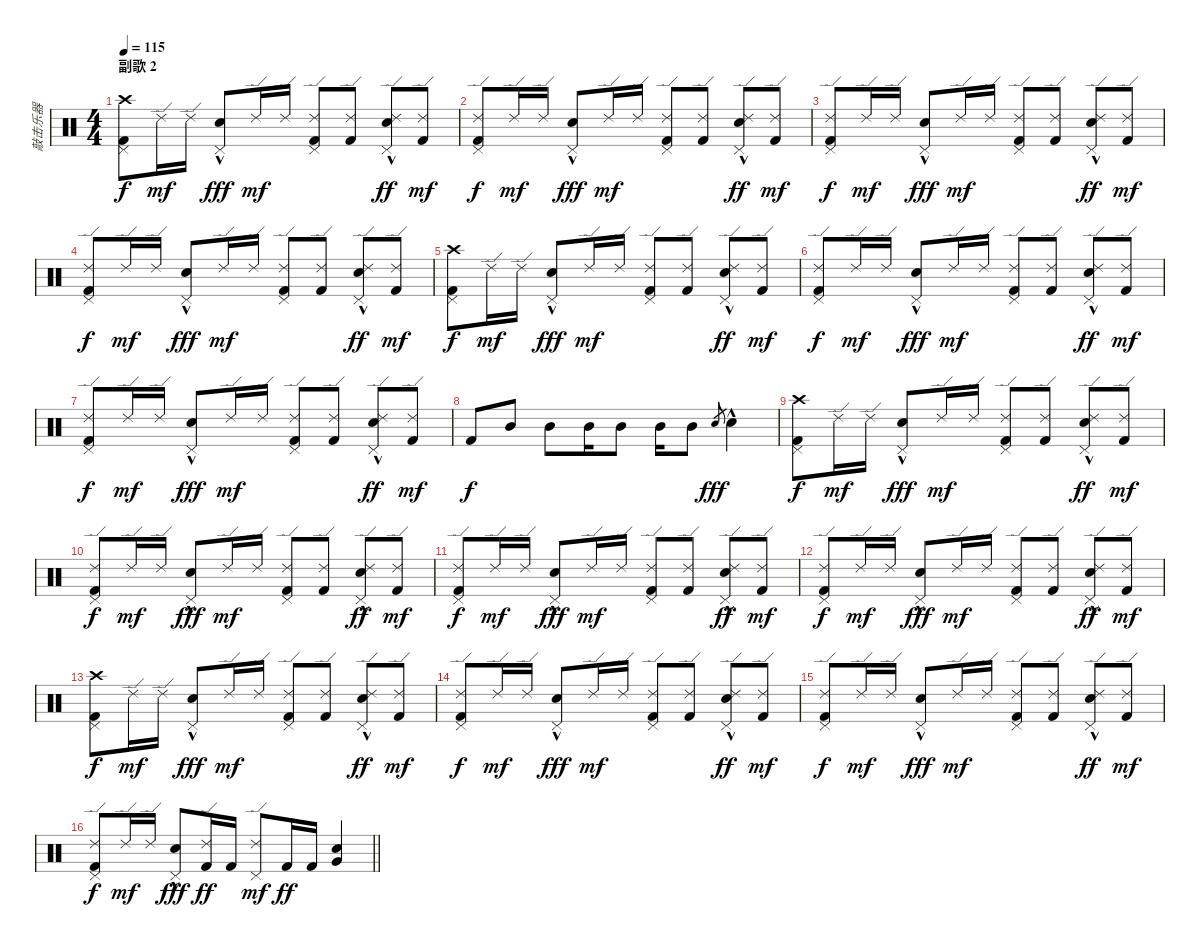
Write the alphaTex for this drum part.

\track ("敲击乐器" "敲击乐器") {instrument percussion}
\staff {score}
\articulation defaults
\ts (4 4)
\section ("" "副歌 2 ")
\tempo 115
\clef neutral
\ks c
("Crash high (hit)" "Pedal Hi-Hat (hit)" "Kick (hit) 2").8{dy f} "Ride (edge) 2".16{dy mf} "Ride (edge) 2".16 ("Electric Snare (hit)"{hac} "Pedal Hi-Hat (hit)").8{dy fff} "Ride (edge) 2".16{dy mf} "Ride (edge) 2".16 ("Ride (edge) 2" "Pedal Hi-Hat (hit)" "Kick (hit) 2").8 ("Ride (edge) 2" "Kick (hit) 2").8 ("Ride (edge) 2" "Electric Snare (hit)"{hac} "Pedal Hi-Hat (hit)").8{dy ff} ("Ride (edge) 2" "Kick (hit) 2").8{dy mf} |
("Ride (edge) 2" "Pedal Hi-Hat (hit)" "Kick (hit) 2").8{dy f} "Ride (edge) 2".16{dy mf} "Ride (edge) 2".16 ("Electric Snare (hit)"{hac} "Pedal Hi-Hat (hit)").8{dy fff} "Ride (edge) 2".16{dy mf} "Ride (edge) 2".16 ("Ride (edge) 2" "Pedal Hi-Hat (hit)" "Kick (hit) 2").8 ("Ride (edge) 2" "Kick (hit) 2").8 ("Ride (edge) 2" "Electric Snare (hit)"{hac} "Pedal Hi-Hat (hit)").8{dy ff} ("Ride (edge) 2" "Kick (hit) 2").8{dy mf} |
("Ride (edge) 2" "Pedal Hi-Hat (hit)" "Kick (hit) 2").8{dy f} "Ride (edge) 2".16{dy mf} "Ride (edge) 2".16 ("Electric Snare (hit)"{hac} "Pedal Hi-Hat (hit)").8{dy fff} "Ride (edge) 2".16{dy mf} "Ride (edge) 2".16 ("Ride (edge) 2" "Pedal Hi-Hat (hit)" "Kick (hit) 2").8 ("Ride (edge) 2" "Kick (hit) 2").8 ("Ride (edge) 2" "Electric Snare (hit)"{hac} "Pedal Hi-Hat (hit)").8{dy ff} ("Ride (edge) 2" "Kick (hit) 2").8{dy mf} |
("Ride (edge) 2" "Pedal Hi-Hat (hit)" "Kick (hit) 2").8{dy f} "Ride (edge) 2".16{dy mf} "Ride (edge) 2".16 ("Electric Snare (hit)"{hac} "Pedal Hi-Hat (hit)").8{dy fff} "Ride (edge) 2".16{dy mf} "Ride (edge) 2".16 ("Ride (edge) 2" "Pedal Hi-Hat (hit)" "Kick (hit) 2").8 ("Ride (edge) 2" "Kick (hit) 2").8 ("Ride (edge) 2" "Electric Snare (hit)"{hac} "Pedal Hi-Hat (hit)").8{dy ff} ("Ride (edge) 2" "Kick (hit) 2").8{dy mf} |
("Crash high (hit)" "Pedal Hi-Hat (hit)" "Kick (hit) 2").8{dy f} "Ride (edge) 2".16{dy mf} "Ride (edge) 2".16 ("Electric Snare (hit)"{hac} "Pedal Hi-Hat (hit)").8{dy fff} "Ride (edge) 2".16{dy mf} "Ride (edge) 2".16 ("Ride (edge) 2" "Pedal Hi-Hat (hit)" "Kick (hit) 2").8 ("Ride (edge) 2" "Kick (hit) 2").8 ("Ride (edge) 2" "Electric Snare (hit)"{hac} "Pedal Hi-Hat (hit)").8{dy ff} ("Ride (edge) 2" "Kick (hit) 2").8{dy mf} |
("Ride (edge) 2" "Pedal Hi-Hat (hit)" "Kick (hit) 2").8{dy f} "Ride (edge) 2".16{dy mf} "Ride (edge) 2".16 ("Electric Snare (hit)"{hac} "Pedal Hi-Hat (hit)").8{dy fff} "Ride (edge) 2".16{dy mf} "Ride (edge) 2".16 ("Ride (edge) 2" "Pedal Hi-Hat (hit)" "Kick (hit) 2").8 ("Ride (edge) 2" "Kick (hit) 2").8 ("Ride (edge) 2" "Electric Snare (hit)"{hac} "Pedal Hi-Hat (hit)").8{dy ff} ("Ride (edge) 2" "Kick (hit) 2").8{dy mf} |
("Ride (edge) 2" "Pedal Hi-Hat (hit)" "Kick (hit) 2").8{dy f} "Ride (edge) 2".16{dy mf} "Ride (edge) 2".16 ("Electric Snare (hit)"{hac} "Pedal Hi-Hat (hit)").8{dy fff} "Ride (edge) 2".16{dy mf} "Ride (edge) 2".16 ("Ride (edge) 2" "Pedal Hi-Hat (hit)" "Kick (hit) 2").8 ("Ride (edge) 2" "Kick (hit) 2").8 ("Ride (edge) 2" "Electric Snare (hit)"{hac} "Pedal Hi-Hat (hit)").8{dy ff} ("Ride (edge) 2" "Kick (hit) 2").8{dy mf} |
"Kick (hit) 2".8{dy f} "Mid Tom (hit)".8 "Mid Tom (hit)".8 "Mid Tom (hit)".16 "Mid Tom (hit)".8 "Mid Tom (hit)".16 "Mid Tom (hit)".8 "Electric Snare (hit)".8{gr dy fff} "Electric Snare (hit)"{hac}.4 |
("Crash high (hit)" "Pedal Hi-Hat (hit)" "Kick (hit) 2").8{dy f} "Ride (edge) 2".16{dy mf} "Ride (edge) 2".16 ("Electric Snare (hit)"{hac} "Pedal Hi-Hat (hit)").8{dy fff} "Ride (edge) 2".16{dy mf} "Ride (edge) 2".16 ("Ride (edge) 2" "Pedal Hi-Hat (hit)" "Kick (hit) 2").8 ("Ride (edge) 2" "Kick (hit) 2").8 ("Ride (edge) 2" "Electric Snare (hit)"{hac} "Pedal Hi-Hat (hit)").8{dy ff} ("Ride (edge) 2" "Kick (hit) 2").8{dy mf} |
("Ride (edge) 2" "Pedal Hi-Hat (hit)" "Kick (hit) 2").8{dy f} "Ride (edge) 2".16{dy mf} "Ride (edge) 2".16 ("Electric Snare (hit)"{hac} "Pedal Hi-Hat (hit)").8{dy fff} "Ride (edge) 2".16{dy mf} "Ride (edge) 2".16 ("Ride (edge) 2" "Pedal Hi-Hat (hit)" "Kick (hit) 2").8 ("Ride (edge) 2" "Kick (hit) 2").8 ("Ride (edge) 2" "Electric Snare (hit)"{hac} "Pedal Hi-Hat (hit)").8{dy ff} ("Ride (edge) 2" "Kick (hit) 2").8{dy mf} |
("Ride (edge) 2" "Pedal Hi-Hat (hit)" "Kick (hit) 2").8{dy f} "Ride (edge) 2".16{dy mf} "Ride (edge) 2".16 ("Electric Snare (hit)"{hac} "Pedal Hi-Hat (hit)").8{dy fff} "Ride (edge) 2".16{dy mf} "Ride (edge) 2".16 ("Ride (edge) 2" "Pedal Hi-Hat (hit)" "Kick (hit) 2").8 ("Ride (edge) 2" "Kick (hit) 2").8 ("Ride (edge) 2" "Electric Snare (hit)"{hac} "Pedal Hi-Hat (hit)").8{dy ff} ("Ride (edge) 2" "Kick (hit) 2").8{dy mf} |
("Ride (edge) 2" "Pedal Hi-Hat (hit)" "Kick (hit) 2").8{dy f} "Ride (edge) 2".16{dy mf} "Ride (edge) 2".16 ("Electric Snare (hit)"{hac} "Pedal Hi-Hat (hit)").8{dy fff} "Ride (edge) 2".16{dy mf} "Ride (edge) 2".16 ("Ride (edge) 2" "Pedal Hi-Hat (hit)" "Kick (hit) 2").8 ("Ride (edge) 2" "Kick (hit) 2").8 ("Ride (edge) 2" "Electric Snare (hit)"{hac} "Pedal Hi-Hat (hit)").8{dy ff} ("Ride (edge) 2" "Kick (hit) 2").8{dy mf} |
("Crash high (hit)" "Pedal Hi-Hat (hit)" "Kick (hit) 2").8{dy f} "Ride (edge) 2".16{dy mf} "Ride (edge) 2".16 ("Electric Snare (hit)"{hac} "Pedal Hi-Hat (hit)").8{dy fff} "Ride (edge) 2".16{dy mf} "Ride (edge) 2".16 ("Ride (edge) 2" "Pedal Hi-Hat (hit)" "Kick (hit) 2").8 ("Ride (edge) 2" "Kick (hit) 2").8 ("Ride (edge) 2" "Electric Snare (hit)"{hac} "Pedal Hi-Hat (hit)").8{dy ff} ("Ride (edge) 2" "Kick (hit) 2").8{dy mf} |
("Ride (edge) 2" "Pedal Hi-Hat (hit)" "Kick (hit) 2").8{dy f} "Ride (edge) 2".16{dy mf} "Ride (edge) 2".16 ("Electric Snare (hit)"{hac} "Pedal Hi-Hat (hit)").8{dy fff} "Ride (edge) 2".16{dy mf} "Ride (edge) 2".16 ("Ride (edge) 2" "Pedal Hi-Hat (hit)" "Kick (hit) 2").8 ("Ride (edge) 2" "Kick (hit) 2").8 ("Ride (edge) 2" "Electric Snare (hit)"{hac} "Pedal Hi-Hat (hit)").8{dy ff} ("Ride (edge) 2" "Kick (hit) 2").8{dy mf} |
("Ride (edge) 2" "Pedal Hi-Hat (hit)" "Kick (hit) 2").8{dy f} "Ride (edge) 2".16{dy mf} "Ride (edge) 2".16 ("Electric Snare (hit)"{hac} "Pedal Hi-Hat (hit)").8{dy fff} "Ride (edge) 2".16{dy mf} "Ride (edge) 2".16 ("Ride (edge) 2" "Pedal Hi-Hat (hit)" "Kick (hit) 2").8 ("Ride (edge) 2" "Kick (hit) 2").8 ("Ride (edge) 2" "Electric Snare (hit)"{hac} "Pedal Hi-Hat (hit)").8{dy ff} ("Ride (edge) 2" "Kick (hit) 2").8{dy mf} |
\barLineRight lightlight
("Ride (edge) 2" "Pedal Hi-Hat (hit)" "Kick (hit) 2").8{dy f} "Ride (edge) 2".16{dy mf} "Ride (edge) 2".16 ("Electric Snare (hit)"{hac} "Pedal Hi-Hat (hit)").8{dy fff} ("Ride (edge) 2" "Kick (hit) 2").16{dy ff} "Kick (hit) 2".16 ("Ride (edge) 2" "Pedal Hi-Hat (hit)").8{dy mf} "Kick (hit) 2".16{dy ff} "Kick (hit) 2".16 ("Electric Snare (hit)" "Very Low Tom (hit)").4
